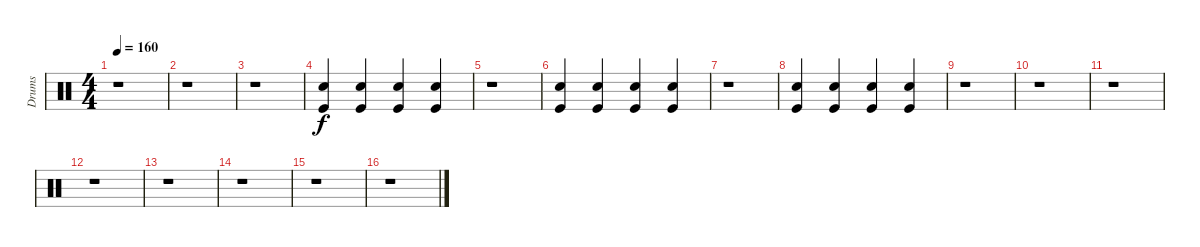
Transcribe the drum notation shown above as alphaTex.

\track ("Drums" "Drums") {instrument percussion}
\staff {score}
\articulation defaults
\ts (4 4)
\tempo 160
\clef neutral
\ks c
r.1{dy f} |
r.1 |
r.1 |
("Snare (hit) 2" "Kick (hit)").4 ("Snare (hit) 2" "Kick (hit)").4 ("Snare (hit) 2" "Kick (hit)").4 ("Snare (hit) 2" "Kick (hit)").4 |
r.1 |
("Snare (hit) 2" "Kick (hit)").4 ("Snare (hit) 2" "Kick (hit)").4 ("Snare (hit) 2" "Kick (hit)").4 ("Snare (hit) 2" "Kick (hit)").4 |
r.1 |
("Snare (hit) 2" "Kick (hit)").4 ("Snare (hit) 2" "Kick (hit)").4 ("Snare (hit) 2" "Kick (hit)").4 ("Snare (hit) 2" "Kick (hit)").4 |
r.1 |
r.1 |
r.1 |
r.1 |
r.1 |
r.1 |
r.1 |
r.1
